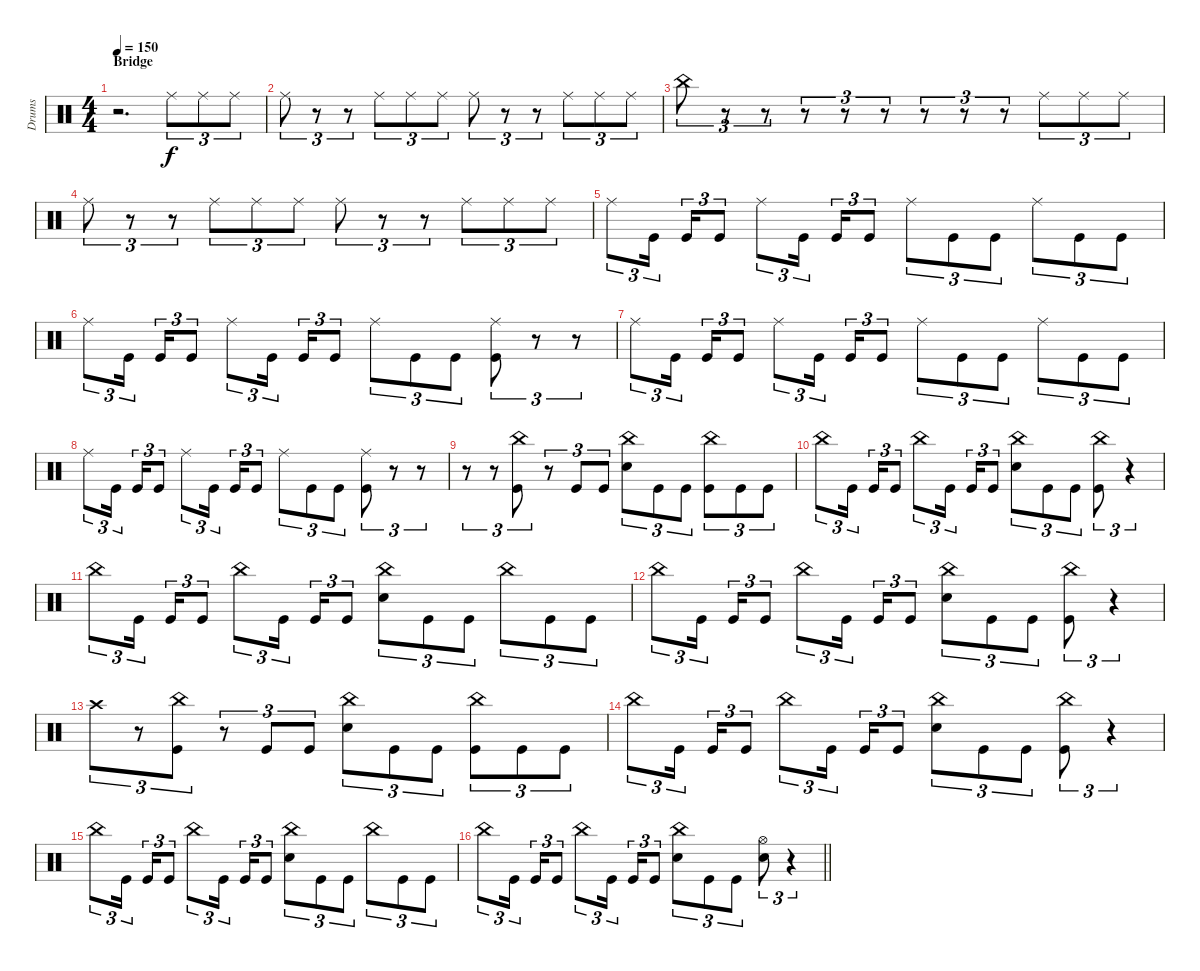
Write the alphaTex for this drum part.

\track ("Drums" "Drums") {instrument percussion}
\staff {score}
\articulation defaults
\ts (4 4)
\section ("" "Bridge")
\tempo 150
\clef neutral
\ks c
r.2{d dy f} "Ride (middle)".8{tu (3 2)} "Ride (middle)".8{tu (3 2)} "Ride (middle)".8{tu (3 2)} |
"Ride (middle)".8{tu (3 2)} r.8{tu (3 2)} r.8{tu (3 2)} "Ride (middle)".8{tu (3 2)} "Ride (middle)".8{tu (3 2)} "Ride (middle)".8{tu (3 2)} "Ride (middle)".8{tu (3 2)} r.8{tu (3 2)} r.8{tu (3 2)} "Ride (middle)".8{tu (3 2)} "Ride (middle)".8{tu (3 2)} "Ride (middle)".8{tu (3 2)} |
"China (hit)".8{tu (3 2)} r.8{tu (3 2)} r.8{tu (3 2)} r.8{tu (3 2)} r.8{tu (3 2)} r.8{tu (3 2)} r.8{tu (3 2)} r.8{tu (3 2)} r.8{tu (3 2)} "Ride (middle)".8{tu (3 2)} "Ride (middle)".8{tu (3 2)} "Ride (middle)".8{tu (3 2)} |
"Ride (middle)".8{tu (3 2)} r.8{tu (3 2)} r.8{tu (3 2)} "Ride (middle)".8{tu (3 2)} "Ride (middle)".8{tu (3 2)} "Ride (middle)".8{tu (3 2)} "Ride (middle)".8{tu (3 2)} r.8{tu (3 2)} r.8{tu (3 2)} "Ride (middle)".8{tu (3 2)} "Ride (middle)".8{tu (3 2)} "Ride (middle)".8{tu (3 2)} |
"Ride (middle)".8{tu (3 2)} "Kick (hit)".16{tu (3 2)} "Kick (hit)".16{tu (3 2)} "Kick (hit)".8{tu (3 2)} "Ride (middle)".8{tu (3 2)} "Kick (hit)".16{tu (3 2)} "Kick (hit)".16{tu (3 2)} "Kick (hit)".8{tu (3 2)} "Ride (middle)".8{tu (3 2)} "Kick (hit)".8{tu (3 2)} "Kick (hit)".8{tu (3 2)} "Ride (middle)".8{tu (3 2)} "Kick (hit)".8{tu (3 2)} "Kick (hit)".8{tu (3 2)} |
"Ride (middle)".8{tu (3 2)} "Kick (hit)".16{tu (3 2)} "Kick (hit)".16{tu (3 2)} "Kick (hit)".8{tu (3 2)} "Ride (middle)".8{tu (3 2)} "Kick (hit)".16{tu (3 2)} "Kick (hit)".16{tu (3 2)} "Kick (hit)".8{tu (3 2)} "Ride (middle)".8{tu (3 2)} "Kick (hit)".8{tu (3 2)} "Kick (hit)".8{tu (3 2)} ("Ride (middle)" "Kick (hit)").8{tu (3 2)} r.8{tu (3 2)} r.8{tu (3 2)} |
"Ride (middle)".8{tu (3 2)} "Kick (hit)".16{tu (3 2)} "Kick (hit)".16{tu (3 2)} "Kick (hit)".8{tu (3 2)} "Ride (middle)".8{tu (3 2)} "Kick (hit)".16{tu (3 2)} "Kick (hit)".16{tu (3 2)} "Kick (hit)".8{tu (3 2)} "Ride (middle)".8{tu (3 2)} "Kick (hit)".8{tu (3 2)} "Kick (hit)".8{tu (3 2)} "Ride (middle)".8{tu (3 2)} "Kick (hit)".8{tu (3 2)} "Kick (hit)".8{tu (3 2)} |
"Ride (middle)".8{tu (3 2)} "Kick (hit)".16{tu (3 2)} "Kick (hit)".16{tu (3 2)} "Kick (hit)".8{tu (3 2)} "Ride (middle)".8{tu (3 2)} "Kick (hit)".16{tu (3 2)} "Kick (hit)".16{tu (3 2)} "Kick (hit)".8{tu (3 2)} "Ride (middle)".8{tu (3 2)} "Kick (hit)".8{tu (3 2)} "Kick (hit)".8{tu (3 2)} ("Ride (middle)" "Kick (hit)").8{tu (3 2)} r.8{tu (3 2)} r.8{tu (3 2)} |
r.8{tu (3 2)} r.8{tu (3 2)} ("China (hit)" "Kick (hit)").8{tu (3 2)} r.8{tu (3 2)} "Kick (hit)".8{tu (3 2)} "Kick (hit)".8{tu (3 2)} ("China (hit)" "Electric Snare (hit)").8{tu (3 2)} "Kick (hit)".8{tu (3 2)} "Kick (hit)".8{tu (3 2)} ("China (hit)" "Kick (hit)").8{tu (3 2)} "Kick (hit)".8{tu (3 2)} "Kick (hit)".8{tu (3 2)} |
"China (hit)".8{tu (3 2)} "Kick (hit)".16{tu (3 2)} "Kick (hit)".16{tu (3 2)} "Kick (hit)".8{tu (3 2)} "China (hit)".8{tu (3 2)} "Kick (hit)".16{tu (3 2)} "Kick (hit)".16{tu (3 2)} "Kick (hit)".8{tu (3 2)} ("China (hit)" "Electric Snare (hit)").8{tu (3 2)} "Kick (hit)".8{tu (3 2)} "Kick (hit)".8{tu (3 2)} ("China (hit)" "Kick (hit)").8{tu (3 2)} r.4{tu (3 2)} |
"China (hit)".8{tu (3 2)} "Kick (hit)".16{tu (3 2)} "Kick (hit)".16{tu (3 2)} "Kick (hit)".8{tu (3 2)} "China (hit)".8{tu (3 2)} "Kick (hit)".16{tu (3 2)} "Kick (hit)".16{tu (3 2)} "Kick (hit)".8{tu (3 2)} ("China (hit)" "Electric Snare (hit)").8{tu (3 2)} "Kick (hit)".8{tu (3 2)} "Kick (hit)".8{tu (3 2)} "China (hit)".8{tu (3 2)} "Kick (hit)".8{tu (3 2)} "Kick (hit)".8{tu (3 2)} |
"China (hit)".8{tu (3 2)} "Kick (hit)".16{tu (3 2)} "Kick (hit)".16{tu (3 2)} "Kick (hit)".8{tu (3 2)} "China (hit)".8{tu (3 2)} "Kick (hit)".16{tu (3 2)} "Kick (hit)".16{tu (3 2)} "Kick (hit)".8{tu (3 2)} ("China (hit)" "Electric Snare (hit)").8{tu (3 2)} "Kick (hit)".8{tu (3 2)} "Kick (hit)".8{tu (3 2)} ("China (hit)" "Kick (hit)").8{tu (3 2)} r.4{tu (3 2)} |
"Crash high (hit)".8{tu (3 2)} r.8{tu (3 2)} ("China (hit)" "Kick (hit)").8{tu (3 2)} r.8{tu (3 2)} "Kick (hit)".8{tu (3 2)} "Kick (hit)".8{tu (3 2)} ("China (hit)" "Electric Snare (hit)").8{tu (3 2)} "Kick (hit)".8{tu (3 2)} "Kick (hit)".8{tu (3 2)} ("China (hit)" "Kick (hit)").8{tu (3 2)} "Kick (hit)".8{tu (3 2)} "Kick (hit)".8{tu (3 2)} |
"China (hit)".8{tu (3 2)} "Kick (hit)".16{tu (3 2)} "Kick (hit)".16{tu (3 2)} "Kick (hit)".8{tu (3 2)} "China (hit)".8{tu (3 2)} "Kick (hit)".16{tu (3 2)} "Kick (hit)".16{tu (3 2)} "Kick (hit)".8{tu (3 2)} ("China (hit)" "Electric Snare (hit)").8{tu (3 2)} "Kick (hit)".8{tu (3 2)} "Kick (hit)".8{tu (3 2)} ("China (hit)" "Kick (hit)").8{tu (3 2)} r.4{tu (3 2)} |
"China (hit)".8{tu (3 2)} "Kick (hit)".16{tu (3 2)} "Kick (hit)".16{tu (3 2)} "Kick (hit)".8{tu (3 2)} "China (hit)".8{tu (3 2)} "Kick (hit)".16{tu (3 2)} "Kick (hit)".16{tu (3 2)} "Kick (hit)".8{tu (3 2)} ("China (hit)" "Electric Snare (hit)").8{tu (3 2)} "Kick (hit)".8{tu (3 2)} "Kick (hit)".8{tu (3 2)} "China (hit)".8{tu (3 2)} "Kick (hit)".8{tu (3 2)} "Kick (hit)".8{tu (3 2)} |
\barLineRight lightlight "China (hit)".8{tu (3 2)} "Kick (hit)".16{tu (3 2)} "Kick (hit)".16{tu (3 2)} "Kick (hit)".8{tu (3 2)} "China (hit)".8{tu (3 2)} "Kick (hit)".16{tu (3 2)} "Kick (hit)".16{tu (3 2)} "Kick (hit)".8{tu (3 2)}
("China (hit)" "Electric Snare (hit)").8{tu (3 2)} "Kick (hit)".8{tu (3 2)} "Kick (hit)".8{tu (3 2)} ("Hi-Hat (open)" "Electric Snare (hit)").8{tu (3 2)} r.4{tu (3 2)}
